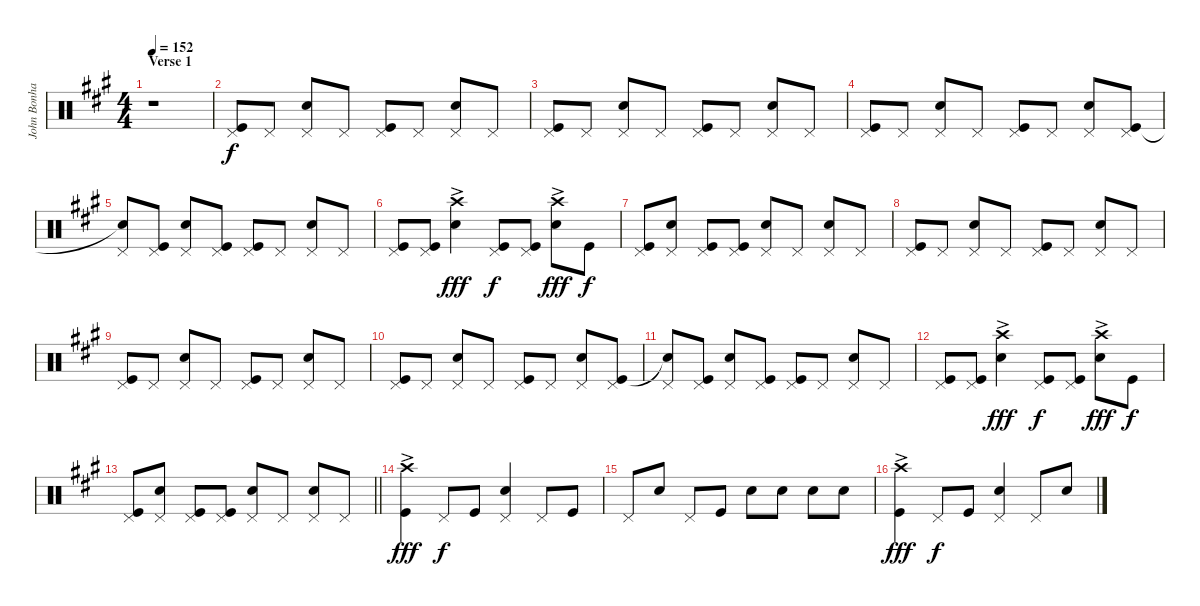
\track ("John Bonham" "John Bonha") {instrument percussion}
\staff {score}
\articulation defaults
\ts (4 4)
\section ("" "Verse 1")
\tempo 152
\clef neutral
\ks a
r.1{dy f} |
("Pedal Hi-Hat (hit)" "Kick (hit)").8 "Pedal Hi-Hat (hit)".8 ("Pedal Hi-Hat (hit)" "Snare (hit) 2").8 "Pedal Hi-Hat (hit)".8 ("Pedal Hi-Hat (hit)" "Kick (hit)").8 "Pedal Hi-Hat (hit)".8 ("Pedal Hi-Hat (hit)" "Snare (hit) 2").8 "Pedal Hi-Hat (hit)".8 |
("Pedal Hi-Hat (hit)" "Kick (hit)").8 "Pedal Hi-Hat (hit)".8 ("Pedal Hi-Hat (hit)" "Snare (hit) 2").8 "Pedal Hi-Hat (hit)".8 ("Pedal Hi-Hat (hit)" "Kick (hit)").8 "Pedal Hi-Hat (hit)".8 ("Pedal Hi-Hat (hit)" "Snare (hit) 2").8 "Pedal Hi-Hat (hit)".8 |
("Pedal Hi-Hat (hit)" "Kick (hit)").8 "Pedal Hi-Hat (hit)".8 ("Pedal Hi-Hat (hit)" "Snare (hit) 2").8 "Pedal Hi-Hat (hit)".8 ("Pedal Hi-Hat (hit)" "Kick (hit)").8 "Pedal Hi-Hat (hit)".8 ("Pedal Hi-Hat (hit)" "Snare (hit) 2").8 ("Pedal Hi-Hat (hit)" "Kick (hit)").8 |
("Pedal Hi-Hat (hit)" "Snare (hit)"{t}).8 ("Pedal Hi-Hat (hit)" "Kick (hit)").8 ("Pedal Hi-Hat (hit)" "Snare (hit) 2").8 ("Pedal Hi-Hat (hit)" "Kick (hit)").8 ("Pedal Hi-Hat (hit)" "Kick (hit)").8 "Pedal Hi-Hat (hit)".8 ("Pedal Hi-Hat (hit)" "Snare (hit) 2").8 "Pedal Hi-Hat (hit)".8 |
("Pedal Hi-Hat (hit)" "Kick (hit)").8 ("Pedal Hi-Hat (hit)" "Kick (hit)").8 ("Crash high (hit)"{ac} "Snare (hit) 2").4{dy fff} ("Pedal Hi-Hat (hit)" "Kick (hit)").8{dy f} ("Pedal Hi-Hat (hit)" "Kick (hit)").8 ("Crash high (hit)"{ac} "Snare (hit) 2").8{dy fff} "Kick (hit)".8{dy f} |
("Pedal Hi-Hat (hit)" "Kick (hit)").8 ("Pedal Hi-Hat (hit)" "Snare (hit) 2").8 ("Pedal Hi-Hat (hit)" "Kick (hit)").8 ("Pedal Hi-Hat (hit)" "Kick (hit)").8 ("Pedal Hi-Hat (hit)" "Snare (hit) 2").8 "Pedal Hi-Hat (hit)".8 ("Pedal Hi-Hat (hit)" "Snare (hit) 2").8 "Pedal Hi-Hat (hit)".8 |
("Pedal Hi-Hat (hit)" "Kick (hit)").8 "Pedal Hi-Hat (hit)".8 ("Pedal Hi-Hat (hit)" "Snare (hit) 2").8 "Pedal Hi-Hat (hit)".8 ("Pedal Hi-Hat (hit)" "Kick (hit)").8 "Pedal Hi-Hat (hit)".8 ("Pedal Hi-Hat (hit)" "Snare (hit) 2").8 "Pedal Hi-Hat (hit)".8 |
("Pedal Hi-Hat (hit)" "Kick (hit)").8 "Pedal Hi-Hat (hit)".8 ("Pedal Hi-Hat (hit)" "Snare (hit) 2").8 "Pedal Hi-Hat (hit)".8 ("Pedal Hi-Hat (hit)" "Kick (hit)").8 "Pedal Hi-Hat (hit)".8 ("Pedal Hi-Hat (hit)" "Snare (hit) 2").8 "Pedal Hi-Hat (hit)".8 |
("Pedal Hi-Hat (hit)" "Kick (hit)").8 "Pedal Hi-Hat (hit)".8 ("Pedal Hi-Hat (hit)" "Snare (hit) 2").8 "Pedal Hi-Hat (hit)".8 ("Pedal Hi-Hat (hit)" "Kick (hit)").8 "Pedal Hi-Hat (hit)".8 ("Pedal Hi-Hat (hit)" "Snare (hit) 2").8 ("Pedal Hi-Hat (hit)" "Kick (hit)").8 |
("Pedal Hi-Hat (hit)" "Snare (hit)"{t}).8 ("Pedal Hi-Hat (hit)" "Kick (hit)").8 ("Pedal Hi-Hat (hit)" "Snare (hit) 2").8 ("Pedal Hi-Hat (hit)" "Kick (hit)").8 ("Pedal Hi-Hat (hit)" "Kick (hit)").8 "Pedal Hi-Hat (hit)".8 ("Pedal Hi-Hat (hit)" "Snare (hit) 2").8 "Pedal Hi-Hat (hit)".8 |
("Pedal Hi-Hat (hit)" "Kick (hit)").8 ("Pedal Hi-Hat (hit)" "Kick (hit)").8 ("Crash high (hit)"{ac} "Snare (hit) 2").4{dy fff} ("Pedal Hi-Hat (hit)" "Kick (hit)").8{dy f} ("Pedal Hi-Hat (hit)" "Kick (hit)").8 ("Crash high (hit)"{ac} "Snare (hit) 2").8{dy fff} "Kick (hit)".8{dy f} |
\barLineRight lightlight
("Pedal Hi-Hat (hit)" "Kick (hit)").8 ("Pedal Hi-Hat (hit)" "Snare (hit) 2").8 ("Pedal Hi-Hat (hit)" "Kick (hit)").8 ("Pedal Hi-Hat (hit)" "Kick (hit)").8 ("Pedal Hi-Hat (hit)" "Snare (hit) 2").8 "Pedal Hi-Hat (hit)".8 ("Pedal Hi-Hat (hit)" "Snare (hit) 2").8 "Pedal Hi-Hat (hit)".8 |
("Crash high (hit)"{ac} "Kick (hit)").4{dy fff} "Pedal Hi-Hat (hit)".8{dy f} "Kick (hit)".8 ("Pedal Hi-Hat (hit)" "Snare (hit) 2").4 "Pedal Hi-Hat (hit)".8 "Kick (hit)".8 |
"Pedal Hi-Hat (hit)".8 "Snare (hit) 2".8 "Pedal Hi-Hat (hit)".8 "Kick (hit)".8 "Snare (hit) 2".8 "Snare (hit) 2".8 "Snare (hit) 2".8 "Snare (hit) 2".8 |
("Crash high (hit)"{ac} "Kick (hit)").4{dy fff} "Pedal Hi-Hat (hit)".8{dy f} "Kick (hit)".8 ("Pedal Hi-Hat (hit)" "Snare (hit) 2").4 "Pedal Hi-Hat (hit)".8 "Snare (hit) 2".8
